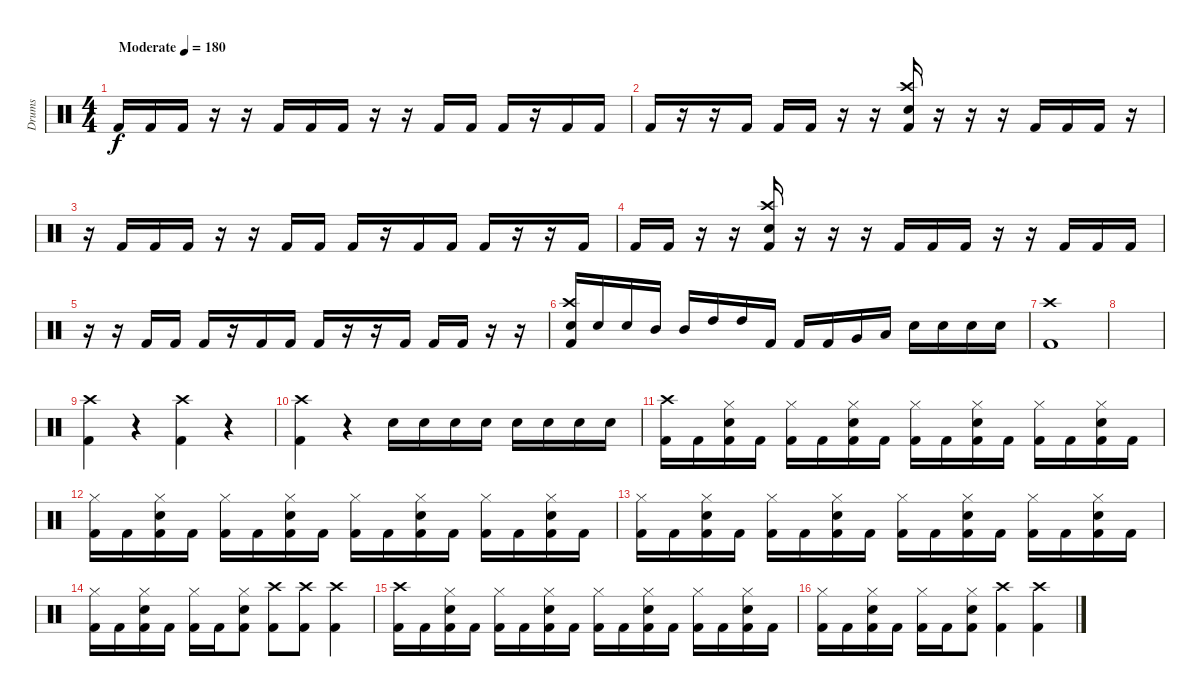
\track ("Drums" "Drums") {instrument percussion}
\staff {score}
\articulation defaults
\ts (4 4)
\tempo (180 "Moderate")
\clef neutral
\ks c "Kick (hit) 2".16{dy f} "Kick (hit) 2".16 "Kick (hit) 2".16
r.16 r.16 "Kick (hit) 2".16 "Kick (hit) 2".16 "Kick (hit) 2".16 r.16 r.16 "Kick (hit) 2".16 "Kick (hit) 2".16 "Kick (hit) 2".16 r.16 "Kick (hit) 2".16 "Kick (hit) 2".16 |
"Kick (hit) 2".16 r.16 r.16 "Kick (hit) 2".16 "Kick (hit) 2".16 "Kick (hit) 2".16 r.16 r.16 ("Crash high (hit)" "Electric Snare (hit)" "Kick (hit) 2").16 r.16 r.16 r.16 "Kick (hit) 2".16 "Kick (hit) 2".16 "Kick (hit) 2".16 r.16 |
r.16 "Kick (hit) 2".16 "Kick (hit) 2".16 "Kick (hit) 2".16 r.16 r.16 "Kick (hit) 2".16 "Kick (hit) 2".16 "Kick (hit) 2".16 r.16 "Kick (hit) 2".16 "Kick (hit) 2".16 "Kick (hit) 2".16 r.16 r.16 "Kick (hit) 2".16 |
"Kick (hit) 2".16 "Kick (hit) 2".16 r.16 r.16 ("Crash high (hit)" "Electric Snare (hit)" "Kick (hit) 2").16 r.16 r.16 r.16 "Kick (hit) 2".16 "Kick (hit) 2".16 "Kick (hit) 2".16 r.16 r.16 "Kick (hit) 2".16 "Kick (hit) 2".16 "Kick (hit) 2".16 |
r.16 r.16 "Kick (hit) 2".16 "Kick (hit) 2".16 "Kick (hit) 2".16 r.16 "Kick (hit) 2".16 "Kick (hit) 2".16 "Kick (hit) 2".16 r.16 r.16 "Kick (hit) 2".16 "Kick (hit) 2".16 "Kick (hit) 2".16 r.16 r.16 |
("Crash high (hit)" "Electric Snare (hit)" "Kick (hit) 2").16 "Electric Snare (hit)".16 "Electric Snare (hit)".16 "Mid Tom (hit)".16 "Mid Tom (hit)".16 "High Tom (hit)".16 "High Tom (hit)".16 "Kick (hit) 2".16 "Kick (hit) 2".16 "Kick (hit) 2".16 "Very Low Tom (hit)".16 "Low Floor Tom (hit)".16 "Electric Snare (hit)".16 "Electric Snare (hit)".16 "Electric Snare (hit)".16 "Electric Snare (hit)".16 |
("Crash high (hit)" "Kick (hit) 2").1 |
|
("Crash high (hit)" "Kick (hit) 2").4 r.4 ("Crash high (hit)" "Kick (hit) 2").4 r.4 |
("Crash high (hit)" "Kick (hit) 2").4 r.4 "Electric Snare (hit)".16 "Electric Snare (hit)".16 "Electric Snare (hit)".16 "Electric Snare (hit)".16 "Electric Snare (hit)".16 "Electric Snare (hit)".16 "Electric Snare (hit)".16 "Electric Snare (hit)".16 |
("Crash high (hit)" "Kick (hit) 2").16 "Kick (hit) 2".16 ("Hi-Hat (closed)" "Electric Snare (hit)" "Kick (hit) 2").16 "Kick (hit) 2".16 ("Hi-Hat (closed)" "Kick (hit) 2").16 "Kick (hit) 2".16 ("Hi-Hat (closed)" "Electric Snare (hit)" "Kick (hit) 2").16 "Kick (hit) 2".16 ("Hi-Hat (closed)" "Kick (hit) 2").16 "Kick (hit) 2".16 ("Hi-Hat (closed)" "Electric Snare (hit)" "Kick (hit) 2").16 "Kick (hit) 2".16 ("Hi-Hat (closed)" "Kick (hit) 2").16 "Kick (hit) 2".16 ("Hi-Hat (closed)" "Electric Snare (hit)" "Kick (hit) 2").16 "Kick (hit) 2".16 |
("Hi-Hat (closed)" "Kick (hit) 2").16 "Kick (hit) 2".16 ("Hi-Hat (closed)" "Electric Snare (hit)" "Kick (hit) 2").16 "Kick (hit) 2".16 ("Hi-Hat (closed)" "Kick (hit) 2").16 "Kick (hit) 2".16 ("Hi-Hat (closed)" "Electric Snare (hit)" "Kick (hit) 2").16 "Kick (hit) 2".16 ("Hi-Hat (closed)" "Kick (hit) 2").16 "Kick (hit) 2".16 ("Hi-Hat (closed)" "Electric Snare (hit)" "Kick (hit) 2").16 "Kick (hit) 2".16 ("Hi-Hat (closed)" "Kick (hit) 2").16 "Kick (hit) 2".16 ("Hi-Hat (closed)" "Electric Snare (hit)" "Kick (hit) 2").16 "Kick (hit) 2".16 |
("Hi-Hat (closed)" "Kick (hit) 2").16 "Kick (hit) 2".16 ("Hi-Hat (closed)" "Electric Snare (hit)" "Kick (hit) 2").16 "Kick (hit) 2".16 ("Hi-Hat (closed)" "Kick (hit) 2").16 "Kick (hit) 2".16 ("Hi-Hat (closed)" "Electric Snare (hit)" "Kick (hit) 2").16 "Kick (hit) 2".16 ("Hi-Hat (closed)" "Kick (hit) 2").16 "Kick (hit) 2".16 ("Hi-Hat (closed)" "Electric Snare (hit)" "Kick (hit) 2").16 "Kick (hit) 2".16 ("Hi-Hat (closed)" "Kick (hit) 2").16 "Kick (hit) 2".16 ("Hi-Hat (closed)" "Electric Snare (hit)" "Kick (hit) 2").16 "Kick (hit) 2".16 |
("Hi-Hat (closed)" "Kick (hit) 2").16 "Kick (hit) 2".16 ("Hi-Hat (closed)" "Electric Snare (hit)" "Kick (hit) 2").16 "Kick (hit) 2".16 ("Hi-Hat (closed)" "Kick (hit) 2").16 "Kick (hit) 2".16 ("Hi-Hat (closed)" "Electric Snare (hit)" "Kick (hit) 2").8 ("Crash high (hit)" "Kick (hit) 2").8 ("Crash high (hit)" "Kick (hit) 2").8 ("Crash high (hit)" "Kick (hit) 2").4 |
("Crash high (hit)" "Kick (hit) 2").16 "Kick (hit) 2".16 ("Hi-Hat (closed)" "Electric Snare (hit)" "Kick (hit) 2").16 "Kick (hit) 2".16 ("Hi-Hat (closed)" "Kick (hit) 2").16 "Kick (hit) 2".16 ("Hi-Hat (closed)" "Electric Snare (hit)" "Kick (hit) 2").16 "Kick (hit) 2".16 ("Hi-Hat (closed)" "Kick (hit) 2").16 "Kick (hit) 2".16 ("Hi-Hat (closed)" "Electric Snare (hit)" "Kick (hit) 2").16 "Kick (hit) 2".16 ("Hi-Hat (closed)" "Kick (hit) 2").16 "Kick (hit) 2".16 ("Hi-Hat (closed)" "Electric Snare (hit)" "Kick (hit) 2").16 "Kick (hit) 2".16 |
("Hi-Hat (closed)" "Kick (hit) 2").16 "Kick (hit) 2".16 ("Hi-Hat (closed)" "Electric Snare (hit)" "Kick (hit) 2").16 "Kick (hit) 2".16 ("Hi-Hat (closed)" "Kick (hit) 2").16 "Kick (hit) 2".16 ("Hi-Hat (closed)" "Electric Snare (hit)" "Kick (hit) 2").8 ("Crash high (hit)" "Kick (hit) 2").4 ("Crash high (hit)" "Kick (hit) 2").4
